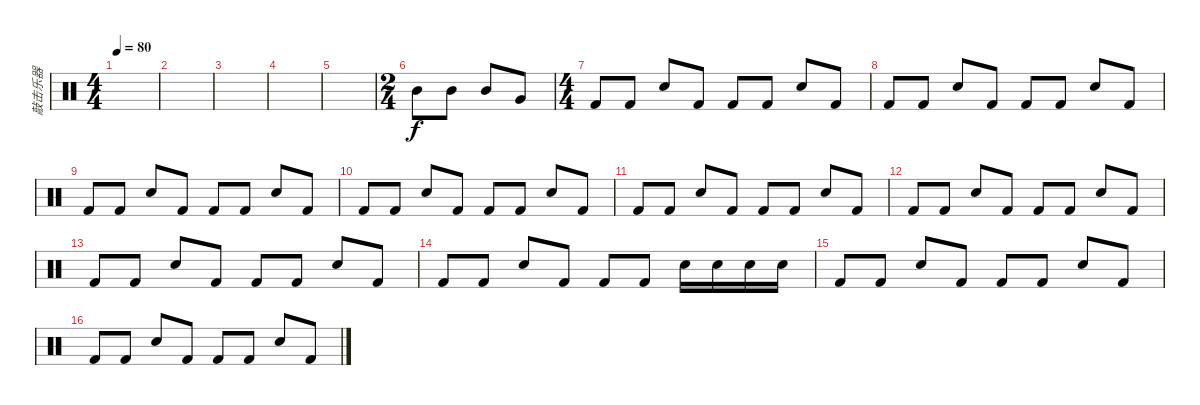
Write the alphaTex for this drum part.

\track ("敲击乐器" "敲击乐器") {instrument percussion}
\staff {score}
\articulation defaults
\ts (4 4)
\tempo 80
\clef neutral
\ks c
|
|
|
|
|
\ts (2 4)
"Mid Tom (hit)".8 "Mid Tom (hit)".8 "Mid Tom (hit)".8 "Very Low Tom (hit)".8 |
\ts (4 4)
"Kick (hit) 2".8 "Kick (hit) 2".8 "Snare (hit) 2".8 "Kick (hit) 2".8 "Kick (hit) 2".8 "Kick (hit) 2".8 "Snare (hit) 2".8 "Kick (hit) 2".8 |
"Kick (hit) 2".8 "Kick (hit) 2".8 "Snare (hit) 2".8 "Kick (hit) 2".8 "Kick (hit) 2".8 "Kick (hit) 2".8 "Snare (hit) 2".8 "Kick (hit) 2".8 |
"Kick (hit) 2".8 "Kick (hit) 2".8 "Snare (hit) 2".8 "Kick (hit) 2".8 "Kick (hit) 2".8 "Kick (hit) 2".8 "Snare (hit) 2".8 "Kick (hit) 2".8 |
"Kick (hit) 2".8 "Kick (hit) 2".8 "Snare (hit) 2".8 "Kick (hit) 2".8 "Kick (hit) 2".8 "Kick (hit) 2".8 "Snare (hit) 2".8 "Kick (hit) 2".8 |
"Kick (hit) 2".8 "Kick (hit) 2".8 "Snare (hit) 2".8 "Kick (hit) 2".8 "Kick (hit) 2".8 "Kick (hit) 2".8 "Snare (hit) 2".8 "Kick (hit) 2".8 |
"Kick (hit) 2".8 "Kick (hit) 2".8 "Snare (hit) 2".8 "Kick (hit) 2".8 "Kick (hit) 2".8 "Kick (hit) 2".8 "Snare (hit) 2".8 "Kick (hit) 2".8 |
"Kick (hit) 2".8 "Kick (hit) 2".8 "Snare (hit) 2".8 "Kick (hit) 2".8 "Kick (hit) 2".8 "Kick (hit) 2".8 "Snare (hit) 2".8 "Kick (hit) 2".8 |
"Kick (hit) 2".8 "Kick (hit) 2".8 "Snare (hit) 2".8 "Kick (hit) 2".8 "Kick (hit) 2".8 "Kick (hit) 2".8 "Snare (hit) 2".16 "Snare (hit) 2".16 "Snare (hit) 2".16 "Snare (hit) 2".16 |
"Kick (hit) 2".8 "Kick (hit) 2".8 "Snare (hit) 2".8 "Kick (hit) 2".8 "Kick (hit) 2".8 "Kick (hit) 2".8 "Snare (hit) 2".8 "Kick (hit) 2".8 |
"Kick (hit) 2".8 "Kick (hit) 2".8 "Snare (hit) 2".8 "Kick (hit) 2".8 "Kick (hit) 2".8 "Kick (hit) 2".8 "Snare (hit) 2".8 "Kick (hit) 2".8
